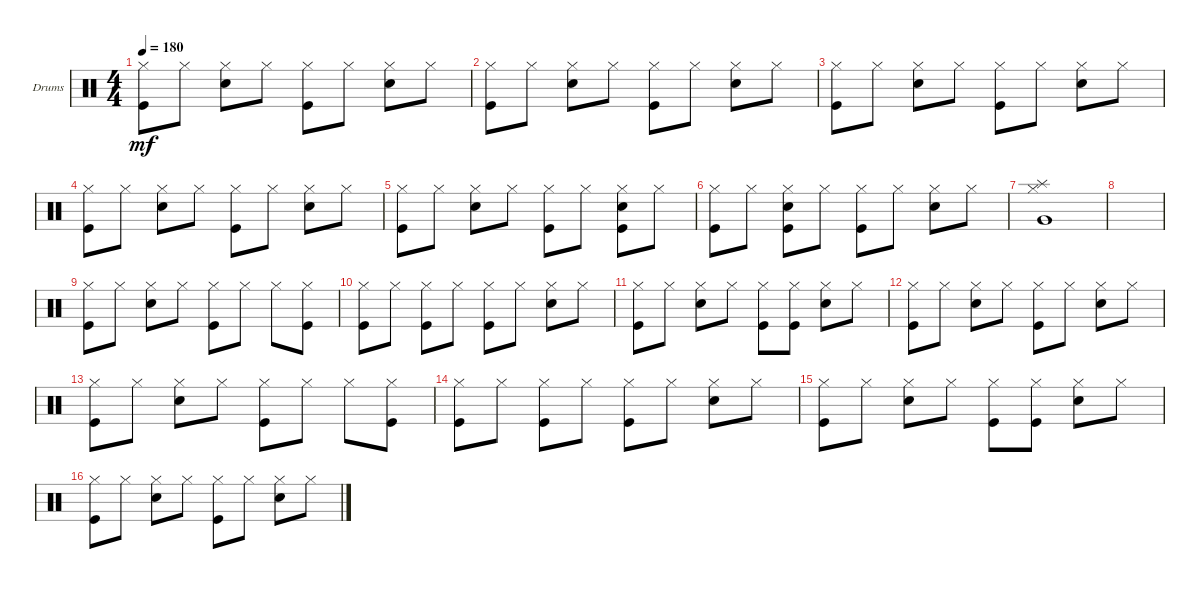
\bracketExtendMode groupsimilarinstruments
\firstSystemTrackNameOrientation horizontal
\otherSystemsTrackNameOrientation horizontal
\track ("Drumkit" "Drums") {instrument percussion}
\staff {score}
\articulation defaults
\ts (4 4)
\tempo 180
\clef neutral
\ks c
("Hi-Hat (closed)" "Kick (hit)").8{dy mf} "Hi-Hat (closed)".8 ("Hi-Hat (closed)" "Snare (hit) 2").8 "Hi-Hat (closed)".8 ("Hi-Hat (closed)" "Kick (hit)").8 "Hi-Hat (closed)".8 ("Hi-Hat (closed)" "Snare (hit) 2").8 "Hi-Hat (closed)".8 |
("Hi-Hat (closed)" "Kick (hit)").8 "Hi-Hat (closed)".8 ("Hi-Hat (closed)" "Snare (hit) 2").8 "Hi-Hat (closed)".8 ("Hi-Hat (closed)" "Kick (hit)").8 "Hi-Hat (closed)".8 ("Hi-Hat (closed)" "Snare (hit) 2").8 "Hi-Hat (closed)".8 |
("Hi-Hat (closed)" "Kick (hit)").8 "Hi-Hat (closed)".8 ("Hi-Hat (closed)" "Snare (hit) 2").8 "Hi-Hat (closed)".8 ("Hi-Hat (closed)" "Kick (hit)").8 "Hi-Hat (closed)".8 ("Hi-Hat (closed)" "Snare (hit) 2").8 "Hi-Hat (closed)".8 |
("Hi-Hat (closed)" "Kick (hit)").8 "Hi-Hat (closed)".8 ("Hi-Hat (closed)" "Snare (hit) 2").8 "Hi-Hat (closed)".8 ("Hi-Hat (closed)" "Kick (hit)").8 "Hi-Hat (closed)".8 ("Hi-Hat (closed)" "Snare (hit) 2").8 "Hi-Hat (closed)".8 |
("Hi-Hat (closed)" "Kick (hit)").8 "Hi-Hat (closed)".8 ("Hi-Hat (closed)" "Snare (hit) 2").8 "Hi-Hat (closed)".8 ("Hi-Hat (closed)" "Kick (hit)").8 "Hi-Hat (closed)".8 ("Hi-Hat (closed)" "Snare (hit) 2" "Kick (hit)").8 "Hi-Hat (closed)".8 |
("Hi-Hat (closed)" "Kick (hit)").8 "Hi-Hat (closed)".8 ("Hi-Hat (closed)" "Snare (hit) 2" "Kick (hit)").8 "Hi-Hat (closed)".8 ("Hi-Hat (closed)" "Kick (hit)").8 "Hi-Hat (closed)".8 ("Hi-Hat (closed)" "Snare (hit) 2").8 "Hi-Hat (closed)".8 |
("Hi-Hat (closed)" "Splash (hit)" "Very Low Tom (hit)").1 |
|
("Hi-Hat (closed)" "Kick (hit)").8 "Hi-Hat (closed)".8 ("Hi-Hat (closed)" "Snare (hit) 2").8 "Hi-Hat (closed)".8 ("Hi-Hat (closed)" "Kick (hit)").8 "Hi-Hat (closed)".8 "Hi-Hat (closed)".8 ("Hi-Hat (closed)" "Kick (hit)").8 |
("Hi-Hat (closed)" "Kick (hit)").8 "Hi-Hat (closed)".8 ("Hi-Hat (closed)" "Kick (hit)").8 "Hi-Hat (closed)".8 ("Hi-Hat (closed)" "Kick (hit)").8 "Hi-Hat (closed)".8 ("Hi-Hat (closed)" "Snare (hit) 2").8 "Hi-Hat (closed)".8 |
("Hi-Hat (closed)" "Kick (hit)").8 "Hi-Hat (closed)".8 ("Hi-Hat (closed)" "Snare (hit) 2").8 "Hi-Hat (closed)".8 ("Hi-Hat (closed)" "Kick (hit)").8 ("Hi-Hat (closed)" "Kick (hit)").8 ("Hi-Hat (closed)" "Snare (hit) 2").8 "Hi-Hat (closed)".8 |
("Hi-Hat (closed)" "Kick (hit)").8 "Hi-Hat (closed)".8 ("Hi-Hat (closed)" "Snare (hit) 2").8 "Hi-Hat (closed)".8 ("Hi-Hat (closed)" "Kick (hit)").8 "Hi-Hat (closed)".8 ("Hi-Hat (closed)" "Snare (hit) 2").8 "Hi-Hat (closed)".8 |
("Hi-Hat (closed)" "Kick (hit)").8 "Hi-Hat (closed)".8 ("Hi-Hat (closed)" "Snare (hit) 2").8 "Hi-Hat (closed)".8 ("Hi-Hat (closed)" "Kick (hit)").8 "Hi-Hat (closed)".8 "Hi-Hat (closed)".8 ("Hi-Hat (closed)" "Kick (hit)").8 |
("Hi-Hat (closed)" "Kick (hit)").8 "Hi-Hat (closed)".8 ("Hi-Hat (closed)" "Kick (hit)").8 "Hi-Hat (closed)".8 ("Hi-Hat (closed)" "Kick (hit)").8 "Hi-Hat (closed)".8 ("Hi-Hat (closed)" "Snare (hit) 2").8 "Hi-Hat (closed)".8 |
("Hi-Hat (closed)" "Kick (hit)").8 "Hi-Hat (closed)".8 ("Hi-Hat (closed)" "Snare (hit) 2").8 "Hi-Hat (closed)".8 ("Hi-Hat (closed)" "Kick (hit)").8 ("Hi-Hat (closed)" "Kick (hit)").8 ("Hi-Hat (closed)" "Snare (hit) 2").8 "Hi-Hat (closed)".8 |
("Hi-Hat (closed)" "Kick (hit)").8 "Hi-Hat (closed)".8 ("Hi-Hat (closed)" "Snare (hit) 2").8 "Hi-Hat (closed)".8 ("Hi-Hat (closed)" "Kick (hit)").8 "Hi-Hat (closed)".8 ("Hi-Hat (closed)" "Snare (hit) 2").8 "Hi-Hat (closed)".8
